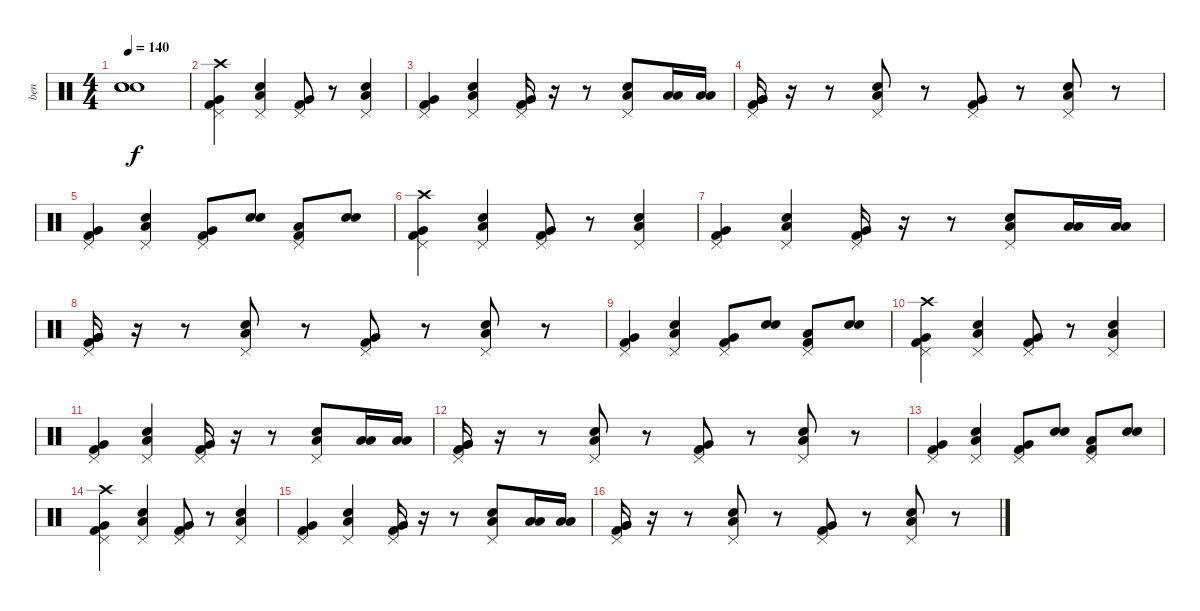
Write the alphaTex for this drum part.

\track ("ben" "ben") {instrument percussion}
\staff {score}
\articulation defaults
\ts (4 4)
\tempo 140
\clef neutral
\ks c
("Snare (hit)"{t} "Snare (hit)"{t} "Snare (hit)"{t}).1{dy f} |
("Kick (hit) 2" "Very Low Tom (hit)" "Pedal Hi-Hat (hit)" "Crash high (hit)").4 ("Electric Snare (hit)" "Low Tom (hit)" "Pedal Hi-Hat (hit)").4 ("Kick (hit) 2" "Very Low Tom (hit)" "Pedal Hi-Hat (hit)").8 r.8 ("Electric Snare (hit)" "Low Tom (hit)" "Pedal Hi-Hat (hit)").4 |
("Kick (hit) 2" "Very Low Tom (hit)" "Pedal Hi-Hat (hit)").4 ("Electric Snare (hit)" "Low Tom (hit)" "Pedal Hi-Hat (hit)").4 ("Pedal Hi-Hat (hit)" "Very Low Tom (hit)" "Kick (hit) 2").16 r.16 r.8 ("Pedal Hi-Hat (hit)" "Low Tom (hit)" "Electric Snare (hit)").8 ("Low Tom (hit)" "Low Tom (hit)").16 ("Low Tom (hit)" "Low Tom (hit)").16 |
("Very Low Tom (hit)" "Very Low Tom (hit)" "Pedal Hi-Hat (hit)" "Kick (hit) 2").16 r.16 r.8 ("Electric Snare (hit)" "Low Tom (hit)" "Pedal Hi-Hat (hit)").8 r.8 ("Kick (hit) 2" "Very Low Tom (hit)" "Pedal Hi-Hat (hit)").8 r.8 ("Electric Snare (hit)" "Low Tom (hit)" "Pedal Hi-Hat (hit)").8 r.8 |
("Kick (hit) 2" "Very Low Tom (hit)" "Pedal Hi-Hat (hit)").4 ("Electric Snare (hit)" "Low Tom (hit)" "Pedal Hi-Hat (hit)").4 ("Kick (hit) 2" "Very Low Tom (hit)" "Pedal Hi-Hat (hit)").8 ("Electric Snare (hit)" "Electric Snare (hit)").8 ("Kick (hit) 2" "Low Tom (hit)" "Pedal Hi-Hat (hit)").8 ("Electric Snare (hit)" "Electric Snare (hit)").8 |
("Kick (hit) 2" "Very Low Tom (hit)" "Pedal Hi-Hat (hit)" "Crash high (hit)").4 ("Electric Snare (hit)" "Low Tom (hit)" "Pedal Hi-Hat (hit)").4 ("Kick (hit) 2" "Very Low Tom (hit)" "Pedal Hi-Hat (hit)").8 r.8 ("Electric Snare (hit)" "Low Tom (hit)" "Pedal Hi-Hat (hit)").4 |
("Kick (hit) 2" "Very Low Tom (hit)" "Pedal Hi-Hat (hit)").4 ("Electric Snare (hit)" "Low Tom (hit)" "Pedal Hi-Hat (hit)").4 ("Pedal Hi-Hat (hit)" "Very Low Tom (hit)" "Kick (hit) 2").16 r.16 r.8 ("Pedal Hi-Hat (hit)" "Low Tom (hit)" "Electric Snare (hit)").8 ("Low Tom (hit)" "Low Tom (hit)").16 ("Low Tom (hit)" "Low Tom (hit)").16 |
("Very Low Tom (hit)" "Very Low Tom (hit)" "Pedal Hi-Hat (hit)" "Kick (hit) 2").16 r.16 r.8 ("Electric Snare (hit)" "Low Tom (hit)" "Pedal Hi-Hat (hit)").8 r.8 ("Kick (hit) 2" "Very Low Tom (hit)" "Pedal Hi-Hat (hit)").8 r.8 ("Electric Snare (hit)" "Low Tom (hit)" "Pedal Hi-Hat (hit)").8 r.8 |
("Kick (hit) 2" "Very Low Tom (hit)" "Pedal Hi-Hat (hit)").4 ("Electric Snare (hit)" "Low Tom (hit)" "Pedal Hi-Hat (hit)").4 ("Kick (hit) 2" "Very Low Tom (hit)" "Pedal Hi-Hat (hit)").8 ("Electric Snare (hit)" "Electric Snare (hit)").8 ("Kick (hit) 2" "Low Tom (hit)" "Pedal Hi-Hat (hit)").8 ("Electric Snare (hit)" "Electric Snare (hit)").8 |
("Kick (hit) 2" "Very Low Tom (hit)" "Pedal Hi-Hat (hit)" "Crash high (hit)").4 ("Electric Snare (hit)" "Low Tom (hit)" "Pedal Hi-Hat (hit)").4 ("Kick (hit) 2" "Very Low Tom (hit)" "Pedal Hi-Hat (hit)").8 r.8 ("Electric Snare (hit)" "Low Tom (hit)" "Pedal Hi-Hat (hit)").4 |
("Kick (hit) 2" "Very Low Tom (hit)" "Pedal Hi-Hat (hit)").4 ("Electric Snare (hit)" "Low Tom (hit)" "Pedal Hi-Hat (hit)").4 ("Pedal Hi-Hat (hit)" "Very Low Tom (hit)" "Kick (hit) 2").16 r.16 r.8 ("Pedal Hi-Hat (hit)" "Low Tom (hit)" "Electric Snare (hit)").8 ("Low Tom (hit)" "Low Tom (hit)").16 ("Low Tom (hit)" "Low Tom (hit)").16 |
("Very Low Tom (hit)" "Very Low Tom (hit)" "Pedal Hi-Hat (hit)" "Kick (hit) 2").16 r.16 r.8 ("Electric Snare (hit)" "Low Tom (hit)" "Pedal Hi-Hat (hit)").8 r.8 ("Kick (hit) 2" "Very Low Tom (hit)" "Pedal Hi-Hat (hit)").8 r.8 ("Electric Snare (hit)" "Low Tom (hit)" "Pedal Hi-Hat (hit)").8 r.8 |
("Kick (hit) 2" "Very Low Tom (hit)" "Pedal Hi-Hat (hit)").4 ("Electric Snare (hit)" "Low Tom (hit)" "Pedal Hi-Hat (hit)").4 ("Kick (hit) 2" "Very Low Tom (hit)" "Pedal Hi-Hat (hit)").8 ("Electric Snare (hit)" "Electric Snare (hit)").8 ("Kick (hit) 2" "Low Tom (hit)" "Pedal Hi-Hat (hit)").8 ("Electric Snare (hit)" "Electric Snare (hit)").8 |
("Kick (hit) 2" "Very Low Tom (hit)" "Pedal Hi-Hat (hit)" "Crash high (hit)").4 ("Electric Snare (hit)" "Low Tom (hit)" "Pedal Hi-Hat (hit)").4 ("Kick (hit) 2" "Very Low Tom (hit)" "Pedal Hi-Hat (hit)").8 r.8 ("Electric Snare (hit)" "Low Tom (hit)" "Pedal Hi-Hat (hit)").4 |
("Kick (hit) 2" "Very Low Tom (hit)" "Pedal Hi-Hat (hit)").4 ("Electric Snare (hit)" "Low Tom (hit)" "Pedal Hi-Hat (hit)").4 ("Pedal Hi-Hat (hit)" "Very Low Tom (hit)" "Kick (hit) 2").16 r.16 r.8 ("Pedal Hi-Hat (hit)" "Low Tom (hit)" "Electric Snare (hit)").8 ("Low Tom (hit)" "Low Tom (hit)").16 ("Low Tom (hit)" "Low Tom (hit)").16 |
("Very Low Tom (hit)" "Very Low Tom (hit)" "Pedal Hi-Hat (hit)" "Kick (hit) 2").16 r.16 r.8 ("Electric Snare (hit)" "Low Tom (hit)" "Pedal Hi-Hat (hit)").8 r.8 ("Kick (hit) 2" "Very Low Tom (hit)" "Pedal Hi-Hat (hit)").8 r.8 ("Electric Snare (hit)" "Low Tom (hit)" "Pedal Hi-Hat (hit)").8 r.8
